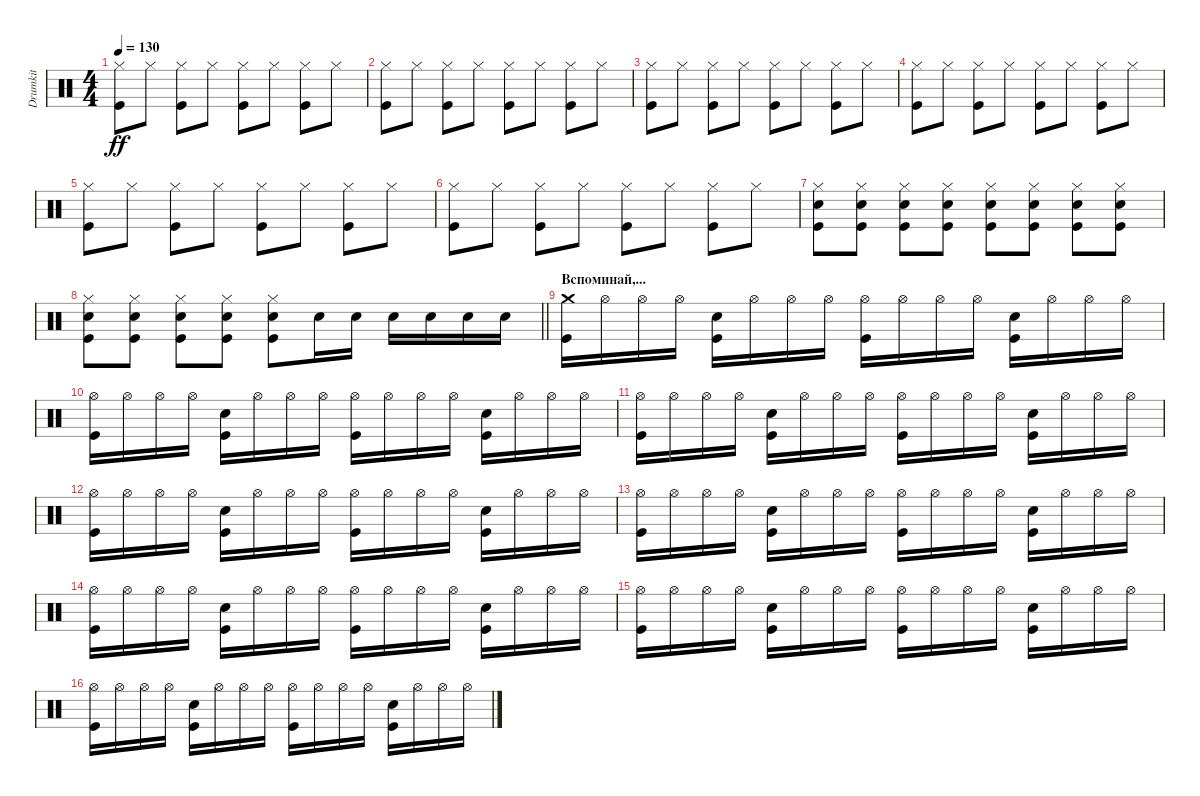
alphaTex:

\track ("Drumkit" "Drumkit") {instrument percussion}
\staff {score}
\articulation defaults
\ts (4 4)
\tempo 130
\clef neutral
\ks c
("Hi-Hat (closed)" "Kick (hit)").8{dy ff} "Hi-Hat (closed)".8 ("Hi-Hat (closed)" "Kick (hit)").8 "Hi-Hat (closed)".8 ("Hi-Hat (closed)" "Kick (hit)").8 "Hi-Hat (closed)".8 ("Hi-Hat (closed)" "Kick (hit)").8 "Hi-Hat (closed)".8 |
("Hi-Hat (closed)" "Kick (hit)").8 "Hi-Hat (closed)".8 ("Hi-Hat (closed)" "Kick (hit)").8 "Hi-Hat (closed)".8 ("Hi-Hat (closed)" "Kick (hit)").8 "Hi-Hat (closed)".8 ("Hi-Hat (closed)" "Kick (hit)").8 "Hi-Hat (closed)".8 |
("Hi-Hat (closed)" "Kick (hit)").8 "Hi-Hat (closed)".8 ("Hi-Hat (closed)" "Kick (hit)").8 "Hi-Hat (closed)".8 ("Hi-Hat (closed)" "Kick (hit)").8 "Hi-Hat (closed)".8 ("Hi-Hat (closed)" "Kick (hit)").8 "Hi-Hat (closed)".8 |
("Hi-Hat (closed)" "Kick (hit)").8 "Hi-Hat (closed)".8 ("Hi-Hat (closed)" "Kick (hit)").8 "Hi-Hat (closed)".8 ("Hi-Hat (closed)" "Kick (hit)").8 "Hi-Hat (closed)".8 ("Hi-Hat (closed)" "Kick (hit)").8 "Hi-Hat (closed)".8 |
("Hi-Hat (closed)" "Kick (hit)").8 "Hi-Hat (closed)".8 ("Hi-Hat (closed)" "Kick (hit)").8 "Hi-Hat (closed)".8 ("Hi-Hat (closed)" "Kick (hit)").8 "Hi-Hat (closed)".8 ("Hi-Hat (closed)" "Kick (hit)").8 "Hi-Hat (closed)".8 |
("Hi-Hat (closed)" "Kick (hit)").8 "Hi-Hat (closed)".8 ("Hi-Hat (closed)" "Kick (hit)").8 "Hi-Hat (closed)".8 ("Hi-Hat (closed)" "Kick (hit)").8 "Hi-Hat (closed)".8 ("Hi-Hat (closed)" "Kick (hit)").8 "Hi-Hat (closed)".8 |
("Hi-Hat (closed)" "Kick (hit)" "Snare (hit) 2").8 ("Hi-Hat (closed)" "Snare (hit) 2" "Kick (hit)").8 ("Hi-Hat (closed)" "Kick (hit)" "Snare (hit) 2").8 ("Hi-Hat (closed)" "Snare (hit) 2" "Kick (hit)").8 ("Hi-Hat (closed)" "Kick (hit)" "Snare (hit) 2").8 ("Hi-Hat (closed)" "Snare (hit) 2" "Kick (hit)").8 ("Hi-Hat (closed)" "Kick (hit)" "Snare (hit) 2").8 ("Hi-Hat (closed)" "Snare (hit) 2" "Kick (hit)").8 |
\barLineRight lightlight
("Hi-Hat (closed)" "Kick (hit)" "Snare (hit) 2").8 ("Hi-Hat (closed)" "Snare (hit) 2" "Kick (hit)").8 ("Hi-Hat (closed)" "Kick (hit)" "Snare (hit) 2").8 ("Hi-Hat (closed)" "Snare (hit) 2" "Kick (hit)").8 ("Hi-Hat (closed)" "Kick (hit)" "Snare (hit) 2").8 "Snare (hit) 2".16 "Snare (hit) 2".16 "Snare (hit) 2".16 "Snare (hit) 2".16 "Snare (hit) 2".16 "Snare (hit) 2".16{volume 14} |
\section ("" "Вспоминай,...")
("Kick (hit)" "Crash medium (hit)").16 "Hi-Hat (open)".16 "Hi-Hat (open)".16 "Hi-Hat (open)".16 ("Snare (hit) 2" "Kick (hit)").16 "Hi-Hat (open)".16 "Hi-Hat (open)".16 "Hi-Hat (open)".16 ("Hi-Hat (open)" "Kick (hit)").16 "Hi-Hat (open)".16 "Hi-Hat (open)".16 "Hi-Hat (open)".16 ("Snare (hit) 2" "Kick (hit)").16 "Hi-Hat (open)".16 "Hi-Hat (open)".16 "Hi-Hat (open)".16 |
("Hi-Hat (open)" "Kick (hit)").16 "Hi-Hat (open)".16 "Hi-Hat (open)".16 "Hi-Hat (open)".16 ("Snare (hit) 2" "Kick (hit)").16 "Hi-Hat (open)".16 "Hi-Hat (open)".16 "Hi-Hat (open)".16 ("Hi-Hat (open)" "Kick (hit)").16 "Hi-Hat (open)".16 "Hi-Hat (open)".16 "Hi-Hat (open)".16 ("Snare (hit) 2" "Kick (hit)").16 "Hi-Hat (open)".16 "Hi-Hat (open)".16 "Hi-Hat (open)".16 |
("Hi-Hat (open)" "Kick (hit)").16 "Hi-Hat (open)".16 "Hi-Hat (open)".16 "Hi-Hat (open)".16 ("Snare (hit) 2" "Kick (hit)").16 "Hi-Hat (open)".16 "Hi-Hat (open)".16 "Hi-Hat (open)".16 ("Hi-Hat (open)" "Kick (hit)").16 "Hi-Hat (open)".16 "Hi-Hat (open)".16 "Hi-Hat (open)".16 ("Snare (hit) 2" "Kick (hit)").16 "Hi-Hat (open)".16 "Hi-Hat (open)".16 "Hi-Hat (open)".16 |
("Hi-Hat (open)" "Kick (hit)").16 "Hi-Hat (open)".16 "Hi-Hat (open)".16 "Hi-Hat (open)".16 ("Snare (hit) 2" "Kick (hit)").16 "Hi-Hat (open)".16 "Hi-Hat (open)".16 "Hi-Hat (open)".16 ("Hi-Hat (open)" "Kick (hit)").16 "Hi-Hat (open)".16 "Hi-Hat (open)".16 "Hi-Hat (open)".16 ("Snare (hit) 2" "Kick (hit)").16 "Hi-Hat (open)".16 "Hi-Hat (open)".16 "Hi-Hat (open)".16 |
("Hi-Hat (open)" "Kick (hit)").16 "Hi-Hat (open)".16 "Hi-Hat (open)".16 "Hi-Hat (open)".16 ("Snare (hit) 2" "Kick (hit)").16 "Hi-Hat (open)".16 "Hi-Hat (open)".16 "Hi-Hat (open)".16 ("Hi-Hat (open)" "Kick (hit)").16 "Hi-Hat (open)".16 "Hi-Hat (open)".16 "Hi-Hat (open)".16 ("Snare (hit) 2" "Kick (hit)").16 "Hi-Hat (open)".16 "Hi-Hat (open)".16 "Hi-Hat (open)".16 |
("Hi-Hat (open)" "Kick (hit)").16 "Hi-Hat (open)".16 "Hi-Hat (open)".16 "Hi-Hat (open)".16 ("Snare (hit) 2" "Kick (hit)").16 "Hi-Hat (open)".16 "Hi-Hat (open)".16 "Hi-Hat (open)".16 ("Hi-Hat (open)" "Kick (hit)").16 "Hi-Hat (open)".16 "Hi-Hat (open)".16 "Hi-Hat (open)".16 ("Snare (hit) 2" "Kick (hit)").16 "Hi-Hat (open)".16 "Hi-Hat (open)".16 "Hi-Hat (open)".16 |
("Hi-Hat (open)" "Kick (hit)").16 "Hi-Hat (open)".16 "Hi-Hat (open)".16 "Hi-Hat (open)".16 ("Snare (hit) 2" "Kick (hit)").16 "Hi-Hat (open)".16 "Hi-Hat (open)".16 "Hi-Hat (open)".16 ("Hi-Hat (open)" "Kick (hit)").16 "Hi-Hat (open)".16 "Hi-Hat (open)".16 "Hi-Hat (open)".16 ("Snare (hit) 2" "Kick (hit)").16 "Hi-Hat (open)".16 "Hi-Hat (open)".16 "Hi-Hat (open)".16 |
("Hi-Hat (open)" "Kick (hit)").16 "Hi-Hat (open)".16 "Hi-Hat (open)".16 "Hi-Hat (open)".16 ("Snare (hit) 2" "Kick (hit)").16 "Hi-Hat (open)".16 "Hi-Hat (open)".16 "Hi-Hat (open)".16 ("Hi-Hat (open)" "Kick (hit)").16 "Hi-Hat (open)".16 "Hi-Hat (open)".16 "Hi-Hat (open)".16 ("Snare (hit) 2" "Kick (hit)").16 "Hi-Hat (open)".16 "Hi-Hat (open)".16 "Hi-Hat (open)".16
